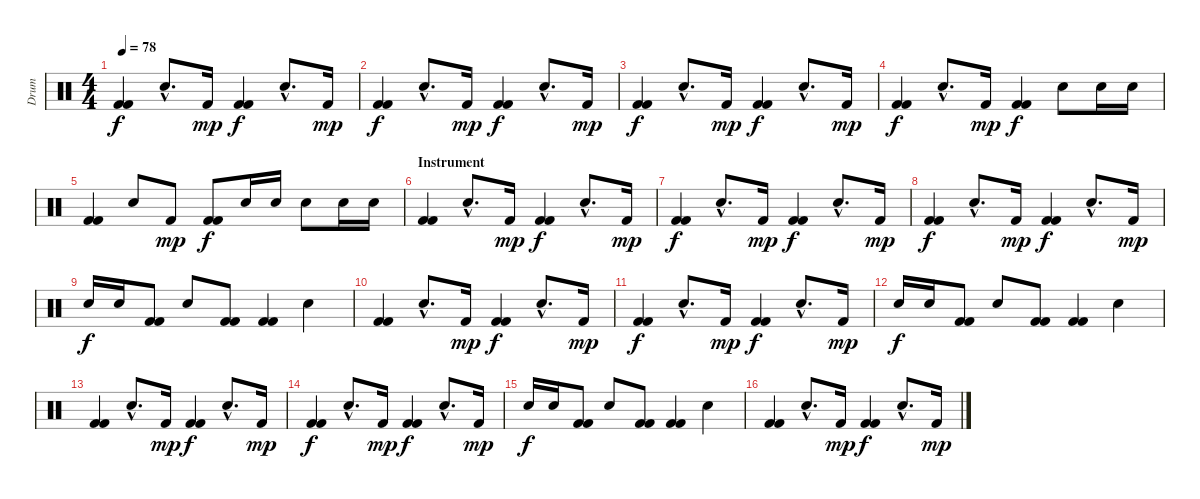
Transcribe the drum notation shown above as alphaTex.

\track ("Drum" "Drum") {instrument percussion}
\staff {score}
\articulation defaults
\ts (4 4)
\tempo 78
\clef neutral
\ks c
("Kick (hit) 2" "Kick (hit) 2").4{dy f} "Electric Snare (hit)"{hac}.8{d} "Kick (hit) 2".16{dy mp} ("Kick (hit) 2" "Kick (hit) 2").4{dy f} "Electric Snare (hit)"{hac}.8{d} "Kick (hit) 2".16{dy mp} |
("Kick (hit) 2" "Kick (hit) 2").4{dy f} "Electric Snare (hit)"{hac}.8{d} "Kick (hit) 2".16{dy mp} ("Kick (hit) 2" "Kick (hit) 2").4{dy f} "Electric Snare (hit)"{hac}.8{d} "Kick (hit) 2".16{dy mp} |
("Kick (hit) 2" "Kick (hit) 2").4{dy f} "Electric Snare (hit)"{hac}.8{d} "Kick (hit) 2".16{dy mp} ("Kick (hit) 2" "Kick (hit) 2").4{dy f} "Electric Snare (hit)"{hac}.8{d} "Kick (hit) 2".16{dy mp} |
("Kick (hit) 2" "Kick (hit) 2").4{dy f} "Electric Snare (hit)"{hac}.8{d} "Kick (hit) 2".16{dy mp} ("Kick (hit) 2" "Kick (hit) 2").4{dy f} "Electric Snare (hit)".8 "Electric Snare (hit)".16 "Electric Snare (hit)".16 |
("Kick (hit) 2" "Kick (hit) 2").4 "Electric Snare (hit)".8 "Kick (hit) 2".8{dy mp} ("Kick (hit) 2" "Kick (hit) 2").8{dy f} "Electric Snare (hit)".16 "Electric Snare (hit)".16 "Electric Snare (hit)".8 "Electric Snare (hit)".16 "Electric Snare (hit)".16 |
\section ("" "Instrument")
("Kick (hit) 2" "Kick (hit) 2").4 "Electric Snare (hit)"{hac}.8{d} "Kick (hit) 2".16{dy mp} ("Kick (hit) 2" "Kick (hit) 2").4{dy f} "Electric Snare (hit)"{hac}.8{d} "Kick (hit) 2".16{dy mp} |
("Kick (hit) 2" "Kick (hit) 2").4{dy f} "Electric Snare (hit)"{hac}.8{d} "Kick (hit) 2".16{dy mp} ("Kick (hit) 2" "Kick (hit) 2").4{dy f} "Electric Snare (hit)"{hac}.8{d} "Kick (hit) 2".16{dy mp} |
("Kick (hit) 2" "Kick (hit) 2").4{dy f} "Electric Snare (hit)"{hac}.8{d} "Kick (hit) 2".16{dy mp} ("Kick (hit) 2" "Kick (hit) 2").4{dy f} "Electric Snare (hit)"{hac}.8{d} "Kick (hit) 2".16{dy mp} |
"Electric Snare (hit)".16{dy f} "Electric Snare (hit)".16 ("Kick (hit) 2" "Kick (hit) 2").8 "Electric Snare (hit)".8 ("Kick (hit) 2" "Kick (hit) 2").8 ("Kick (hit) 2" "Kick (hit) 2").4 "Electric Snare (hit)".4 |
("Kick (hit) 2" "Kick (hit) 2").4 "Electric Snare (hit)"{hac}.8{d} "Kick (hit) 2".16{dy mp} ("Kick (hit) 2" "Kick (hit) 2").4{dy f} "Electric Snare (hit)"{hac}.8{d} "Kick (hit) 2".16{dy mp} |
("Kick (hit) 2" "Kick (hit) 2").4{dy f} "Electric Snare (hit)"{hac}.8{d} "Kick (hit) 2".16{dy mp} ("Kick (hit) 2" "Kick (hit) 2").4{dy f} "Electric Snare (hit)"{hac}.8{d} "Kick (hit) 2".16{dy mp} |
"Electric Snare (hit)".16{dy f} "Electric Snare (hit)".16 ("Kick (hit) 2" "Kick (hit) 2").8 "Electric Snare (hit)".8 ("Kick (hit) 2" "Kick (hit) 2").8 ("Kick (hit) 2" "Kick (hit) 2").4 "Electric Snare (hit)".4 |
("Kick (hit) 2" "Kick (hit) 2").4 "Electric Snare (hit)"{hac}.8{d} "Kick (hit) 2".16{dy mp} ("Kick (hit) 2" "Kick (hit) 2").4{dy f} "Electric Snare (hit)"{hac}.8{d} "Kick (hit) 2".16{dy mp} |
("Kick (hit) 2" "Kick (hit) 2").4{dy f} "Electric Snare (hit)"{hac}.8{d} "Kick (hit) 2".16{dy mp} ("Kick (hit) 2" "Kick (hit) 2").4{dy f} "Electric Snare (hit)"{hac}.8{d} "Kick (hit) 2".16{dy mp} |
"Electric Snare (hit)".16{dy f} "Electric Snare (hit)".16 ("Kick (hit) 2" "Kick (hit) 2").8 "Electric Snare (hit)".8 ("Kick (hit) 2" "Kick (hit) 2").8 ("Kick (hit) 2" "Kick (hit) 2").4 "Electric Snare (hit)".4 |
("Kick (hit) 2" "Kick (hit) 2").4 "Electric Snare (hit)"{hac}.8{d} "Kick (hit) 2".16{dy mp} ("Kick (hit) 2" "Kick (hit) 2").4{dy f} "Electric Snare (hit)"{hac}.8{d} "Kick (hit) 2".16{dy mp}
